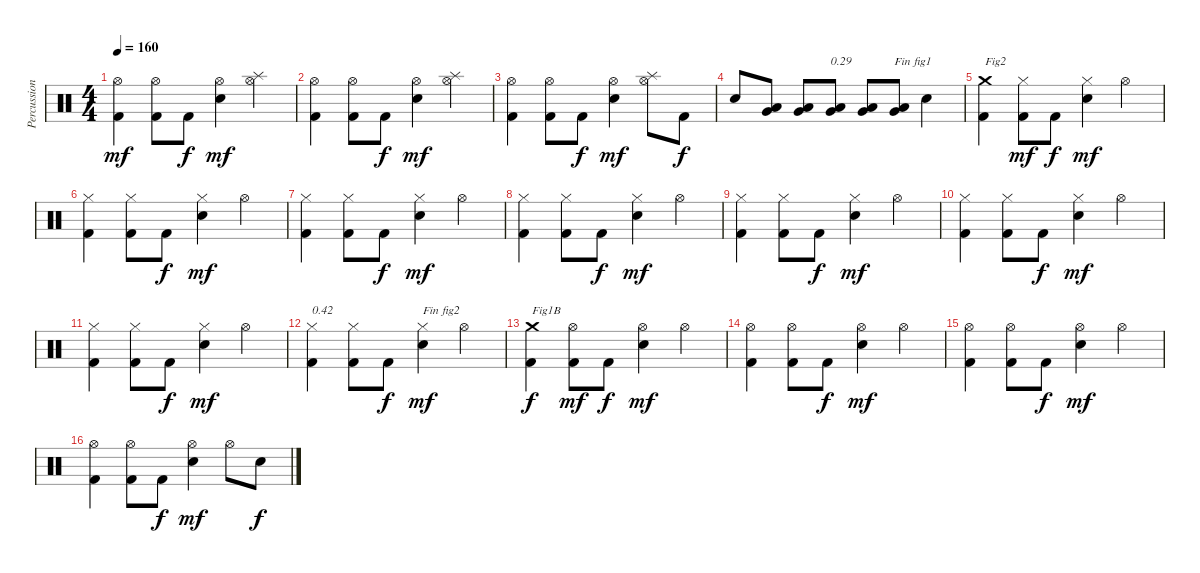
\track ("Percussions" "Percussion") {instrument percussion}
\staff {score}
\articulation defaults
\ts (4 4)
\tempo 160
\clef neutral
\ks c
("Kick (hit) 2" "Hi-Hat (open)").4{dy mf} ("Kick (hit) 2" "Hi-Hat (open)").8 "Kick (hit) 2".8{dy f} ("Electric Snare (hit)" "Hi-Hat (open)").4{dy mf} ("Hi-Hat (open)" "Splash (hit)").4 |
("Kick (hit) 2" "Hi-Hat (open)").4 ("Kick (hit) 2" "Hi-Hat (open)").8 "Kick (hit) 2".8{dy f} ("Electric Snare (hit)" "Hi-Hat (open)").4{dy mf} ("Hi-Hat (open)" "Splash (hit)").4 |
("Kick (hit) 2" "Hi-Hat (open)").4 ("Kick (hit) 2" "Hi-Hat (open)").8 "Kick (hit) 2".8{dy f} ("Electric Snare (hit)" "Hi-Hat (open)").4{dy mf} ("Hi-Hat (open)" "Splash (hit)").8 "Kick (hit) 2".8{dy f} |
"Electric Snare (hit)".8 ("Very Low Tom (hit)" "Low Floor Tom (hit)").8 ("Very Low Tom (hit)" "Low Floor Tom (hit)").8 ("Very Low Tom (hit)" "Low Floor Tom (hit)").8{txt "0.29"} ("Very Low Tom (hit)" "Low Floor Tom (hit)").8 ("Very Low Tom (hit)" "Low Floor Tom (hit)").8{txt "Fin fig1"} "Electric Snare (hit)".4 |
("Kick (hit) 2" "Crash medium (hit)").4{txt "Fig2"} ("Kick (hit) 2" "Hi-Hat (closed)").8{dy mf} "Kick (hit) 2".8{dy f} ("Electric Snare (hit)" "Hi-Hat (closed)").4{dy mf} "Hi-Hat (open)".4 |
("Kick (hit) 2" "Hi-Hat (closed)").4 ("Kick (hit) 2" "Hi-Hat (closed)").8 "Kick (hit) 2".8{dy f} ("Electric Snare (hit)" "Hi-Hat (closed)").4{dy mf} "Hi-Hat (open)".4 |
("Kick (hit) 2" "Hi-Hat (closed)").4 ("Kick (hit) 2" "Hi-Hat (closed)").8 "Kick (hit) 2".8{dy f} ("Electric Snare (hit)" "Hi-Hat (closed)").4{dy mf} "Hi-Hat (open)".4 |
("Kick (hit) 2" "Hi-Hat (closed)").4 ("Kick (hit) 2" "Hi-Hat (closed)").8 "Kick (hit) 2".8{dy f} ("Electric Snare (hit)" "Hi-Hat (closed)").4{dy mf} "Hi-Hat (open)".4 |
("Kick (hit) 2" "Hi-Hat (closed)").4 ("Kick (hit) 2" "Hi-Hat (closed)").8 "Kick (hit) 2".8{dy f} ("Electric Snare (hit)" "Hi-Hat (closed)").4{dy mf} "Hi-Hat (open)".4 |
("Kick (hit) 2" "Hi-Hat (closed)").4 ("Kick (hit) 2" "Hi-Hat (closed)").8 "Kick (hit) 2".8{dy f} ("Electric Snare (hit)" "Hi-Hat (closed)").4{dy mf} "Hi-Hat (open)".4 |
("Kick (hit) 2" "Hi-Hat (closed)").4 ("Kick (hit) 2" "Hi-Hat (closed)").8 "Kick (hit) 2".8{dy f} ("Electric Snare (hit)" "Hi-Hat (closed)").4{dy mf} "Hi-Hat (open)".4 |
("Kick (hit) 2" "Hi-Hat (closed)").4{txt "0.42"} ("Kick (hit) 2" "Hi-Hat (closed)").8 "Kick (hit) 2".8{dy f} ("Electric Snare (hit)" "Hi-Hat (closed)").4{txt "Fin fig2" dy mf} "Hi-Hat (open)".4 |
("Kick (hit) 2" "Crash medium (hit)").4{txt "Fig1B" dy f} ("Kick (hit) 2" "Hi-Hat (open)").8{dy mf} "Kick (hit) 2".8{dy f} ("Electric Snare (hit)" "Hi-Hat (open)").4{dy mf} "Hi-Hat (open)".4 |
("Kick (hit) 2" "Hi-Hat (open)").4 ("Kick (hit) 2" "Hi-Hat (open)").8 "Kick (hit) 2".8{dy f} ("Electric Snare (hit)" "Hi-Hat (open)").4{dy mf} "Hi-Hat (open)".4 |
("Kick (hit) 2" "Hi-Hat (open)").4 ("Kick (hit) 2" "Hi-Hat (open)").8 "Kick (hit) 2".8{dy f} ("Electric Snare (hit)" "Hi-Hat (open)").4{dy mf} "Hi-Hat (open)".4 |
("Kick (hit) 2" "Hi-Hat (open)").4 ("Kick (hit) 2" "Hi-Hat (open)").8 "Kick (hit) 2".8{dy f} ("Electric Snare (hit)" "Hi-Hat (open)").4{dy mf} "Hi-Hat (open)".8 "Electric Snare (hit)".8{dy f}
